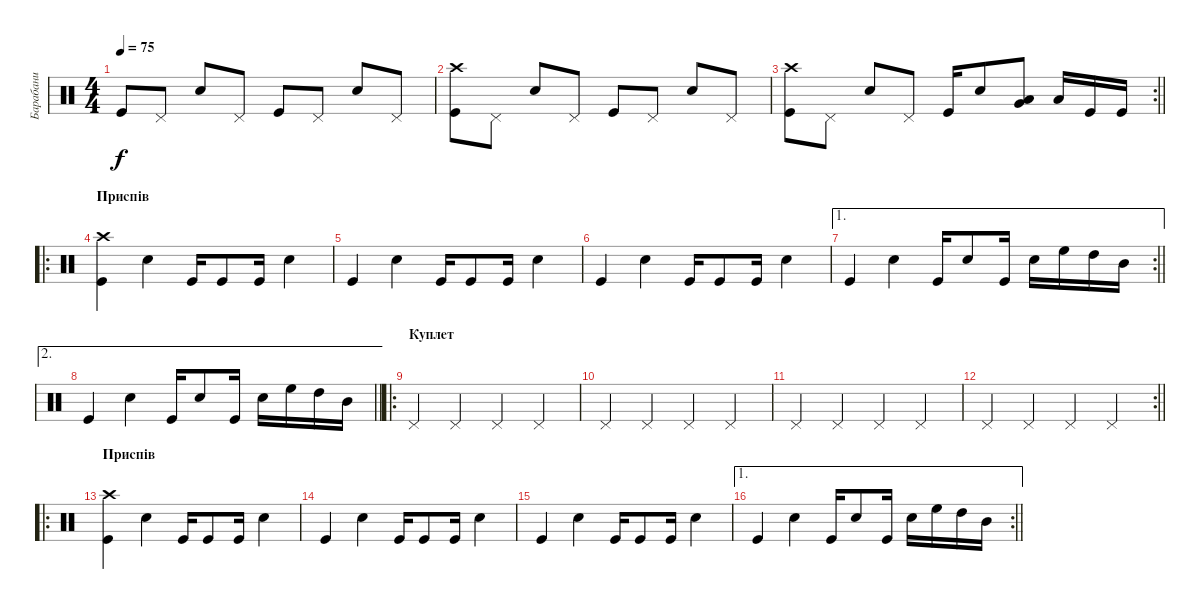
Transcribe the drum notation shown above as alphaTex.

\track ("Барабани" "Барабани") {instrument percussion}
\staff {score}
\articulation defaults
\ts (4 4)
\tempo 75
\clef neutral
\ks c "Kick (hit)".8{dy f} "Pedal Hi-Hat (hit)".8 "Snare (hit) 2".8 "Pedal Hi-Hat (hit)".8 "Kick (hit)".8 "Pedal Hi-Hat (hit)".8 "Snare (hit) 2".8 "Pedal Hi-Hat (hit)".8
|
("Kick (hit)" "Crash high (hit)").8 "Pedal Hi-Hat (hit)".8 "Snare (hit) 2".8 "Pedal Hi-Hat (hit)".8 "Kick (hit)".8 "Pedal Hi-Hat (hit)".8 "Snare (hit) 2".8 "Pedal Hi-Hat (hit)".8 |
\rc 2
\barLineRight lightlight
("Kick (hit)" "Crash high (hit)").8 "Pedal Hi-Hat (hit)".8 "Snare (hit) 2".8 "Pedal Hi-Hat (hit)".8 "Kick (hit)".16 "Snare (hit) 2".8 ("Low Tom (hit)" "Very Low Tom (hit)").8 "Low Floor Tom (hit)".16 "Kick (hit)".16 "Kick (hit)".16 |
\ro
\section ("" "Приспів")
("Crash high (hit)" "Kick (hit)").4 "Snare (hit) 2".4 "Kick (hit)".16 "Kick (hit)".8 "Kick (hit)".16 "Snare (hit) 2".4 |
"Kick (hit)".4 "Snare (hit) 2".4 "Kick (hit)".16 "Kick (hit)".8 "Kick (hit)".16 "Snare (hit) 2".4 |
"Kick (hit)".4 "Snare (hit) 2".4 "Kick (hit)".16 "Kick (hit)".8 "Kick (hit)".16 "Snare (hit) 2".4 |
\ae 1
\rc 2
\barLineRight lightlight "Kick (hit)".4 "Snare (hit) 2".4 "Kick (hit)".16 "Snare (hit) 2".8 "Kick (hit)".16 "Snare (hit) 2".16 "High Floor Tom (hit)".16 "High Tom (hit)".16 "Mid Tom (hit)".16
|
\ae 2
\barLineRight lightlight "Kick (hit)".4 "Snare (hit) 2".4 "Kick (hit)".16 "Snare (hit) 2".8 "Kick (hit)".16 "Snare (hit) 2".16 "High Floor Tom (hit)".16 "High Tom (hit)".16 "Mid Tom (hit)".16
|
\ro
\section ("" "Куплет")
"Pedal Hi-Hat (hit)".4 "Pedal Hi-Hat (hit)".4 "Pedal Hi-Hat (hit)".4 "Pedal Hi-Hat (hit)".4 |
"Pedal Hi-Hat (hit)".4 "Pedal Hi-Hat (hit)".4 "Pedal Hi-Hat (hit)".4 "Pedal Hi-Hat (hit)".4 |
"Pedal Hi-Hat (hit)".4 "Pedal Hi-Hat (hit)".4 "Pedal Hi-Hat (hit)".4 "Pedal Hi-Hat (hit)".4 |
\rc 2
\barLineRight lightlight "Pedal Hi-Hat (hit)".4 "Pedal Hi-Hat (hit)".4 "Pedal Hi-Hat (hit)".4 "Pedal Hi-Hat (hit)".4
|
\ro
\section ("" "Приспів")
("Crash high (hit)" "Kick (hit)").4 "Snare (hit) 2".4 "Kick (hit)".16 "Kick (hit)".8 "Kick (hit)".16 "Snare (hit) 2".4 |
"Kick (hit)".4 "Snare (hit) 2".4 "Kick (hit)".16 "Kick (hit)".8 "Kick (hit)".16 "Snare (hit) 2".4 |
"Kick (hit)".4 "Snare (hit) 2".4 "Kick (hit)".16 "Kick (hit)".8 "Kick (hit)".16 "Snare (hit) 2".4 |
\ae 1
\rc 2
\barLineRight lightlight "Kick (hit)".4 "Snare (hit) 2".4 "Kick (hit)".16 "Snare (hit) 2".8 "Kick (hit)".16 "Snare (hit) 2".16 "High Floor Tom (hit)".16 "High Tom (hit)".16 "Mid Tom (hit)".16
